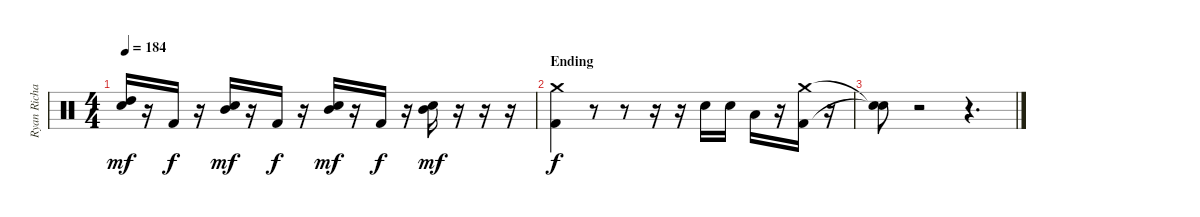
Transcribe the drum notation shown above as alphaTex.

\track ("Ryan Richards" "Ryan Richa") {instrument percussion}
\staff {score}
\articulation defaults
\ts (4 4)
\tempo 184
\clef neutral
\ks c
("High Tom (hit)" "Snare (hit) 2").16{dy mf} r.16 "Kick (hit) 2".16{dy f} r.16 ("Mid Tom (hit)" "Snare (hit) 2").16{dy mf} r.16 "Kick (hit) 2".16{dy f} r.16 ("Mid Tom (hit)" "Snare (hit) 2").16{dy mf} r.16 "Kick (hit) 2".16{dy f} r.16 ("Mid Tom (hit)" "Snare (hit) 2").16{dy mf} r.16 r.16 r.16 |
\section ("" "Ending")
("Kick (hit) 2" "Crash medium (hit)").4{dy f} r.8 r.8 r.16 r.16 "Snare (hit) 2".16 "Snare (hit) 2".16 "Low Tom (hit)".16 r.16 ("Kick (hit) 2" "Crash medium (hit)").16 r.16 |
("Snare (hit)"{t} "Snare (hit)"{t}).8 r.2 r.4{d}
